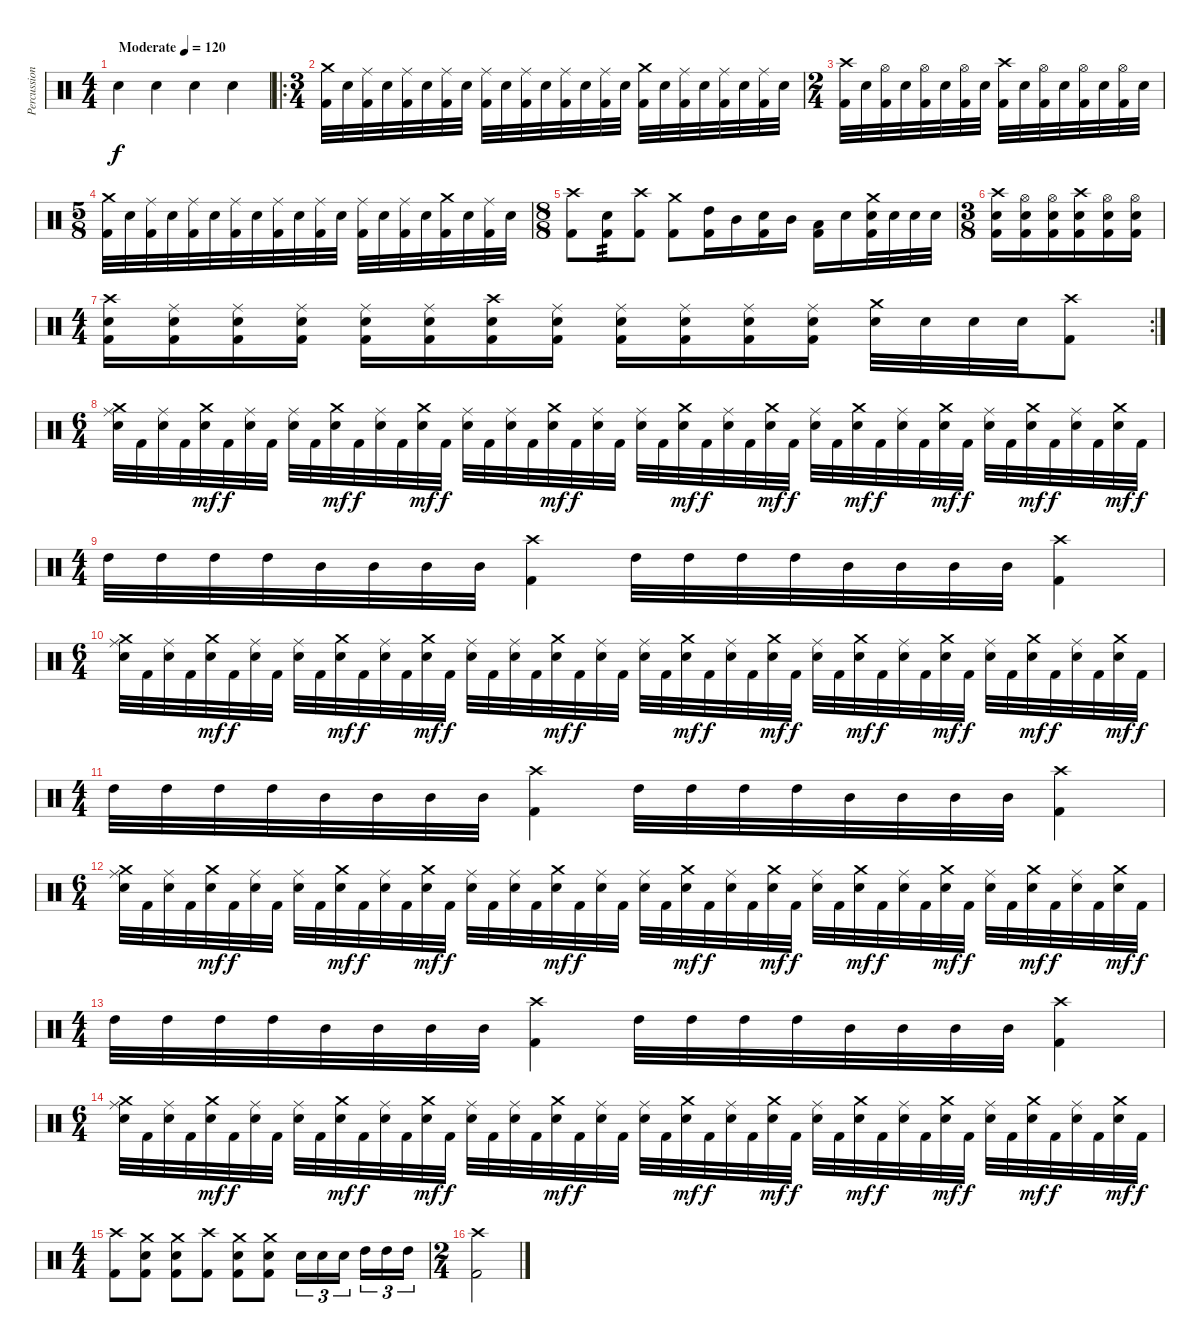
\track ("Percussion" "Percussion") {instrument percussion}
\staff {score}
\articulation defaults
\ts (4 4)
\tempo (120 "Moderate")
\clef neutral
\ks c "Electric Snare (hit)".4{dy f} "Electric Snare (hit)".4 "Electric Snare (hit)".4 "Electric Snare (hit)".4
|
\ro
\ts (3 4)
("Kick (hit) 2" "Crash medium (hit)").32 "Electric Snare (hit)".32 ("Kick (hit) 2" "Ride (middle)").32 "Electric Snare (hit)".32 ("Kick (hit) 2" "Ride (middle)").32 "Electric Snare (hit)".32 ("Kick (hit) 2" "Ride (middle)").32 "Electric Snare (hit)".32 ("Kick (hit) 2" "Ride (middle)").32 "Electric Snare (hit)".32 ("Kick (hit) 2" "Ride (middle)").32 "Electric Snare (hit)".32 ("Kick (hit) 2" "Ride (middle)").32 "Electric Snare (hit)".32 ("Kick (hit) 2" "Ride (middle)").32 "Electric Snare (hit)".32 ("Kick (hit) 2" "Crash medium (hit)").32 "Electric Snare (hit)".32 ("Kick (hit) 2" "Ride (middle)").32 "Electric Snare (hit)".32 ("Kick (hit) 2" "Ride (middle)").32 "Electric Snare (hit)".32 ("Kick (hit) 2" "Ride (middle)").32 "Electric Snare (hit)".32 |
\ts (2 4)
("Kick (hit) 2" "Crash high (hit)").32 "Electric Snare (hit)".32 ("Kick (hit) 2" "Hi-Hat (open)").32 "Electric Snare (hit)".32 ("Kick (hit) 2" "Hi-Hat (open)").32 "Electric Snare (hit)".32 ("Kick (hit) 2" "Hi-Hat (open)").32 "Electric Snare (hit)".32 ("Kick (hit) 2" "Crash high (hit)").32 "Electric Snare (hit)".32 ("Kick (hit) 2" "Hi-Hat (open)").32 "Electric Snare (hit)".32 ("Kick (hit) 2" "Hi-Hat (open)").32 "Electric Snare (hit)".32 ("Kick (hit) 2" "Hi-Hat (open)").32 "Electric Snare (hit)".32 |
\ts (5 8)
("Kick (hit) 2" "Crash medium (hit)").32 "Electric Snare (hit)".32 ("Kick (hit) 2" "Ride (middle)").32 "Electric Snare (hit)".32 ("Kick (hit) 2" "Ride (middle)").32 "Electric Snare (hit)".32 ("Kick (hit) 2" "Ride (middle)").32 "Electric Snare (hit)".32 ("Kick (hit) 2" "Ride (middle)").32 "Electric Snare (hit)".32 ("Kick (hit) 2" "Ride (middle)").32 "Electric Snare (hit)".32 ("Kick (hit) 2" "Ride (middle)").32 "Electric Snare (hit)".32 ("Kick (hit) 2" "Ride (middle)").32 "Electric Snare (hit)".32 ("Kick (hit) 2" "Crash medium (hit)").32 "Electric Snare (hit)".32 ("Kick (hit) 2" "Ride (middle)").32 "Electric Snare (hit)".32 |
\ts (8 8)
("Crash high (hit)" "Kick (hit) 2").8 ("Electric Snare (hit)" "Kick (hit) 2").8{tp 3} ("Crash high (hit)" "Kick (hit) 2").8 ("Crash medium (hit)" "Kick (hit) 2").8 ("Kick (hit) 2" "High Tom (hit)").16 "Mid Tom (hit)".16 ("Kick (hit) 2" "Electric Snare (hit)").16 "Mid Tom (hit)".16 ("Kick (hit) 2" "Low Tom (hit)").16 "Electric Snare (hit)".16 ("Kick (hit) 2" "Crash medium (hit)" "Electric Snare (hit)").32 "Electric Snare (hit)".32 "Electric Snare (hit)".32 "Electric Snare (hit)".32 |
\ts (3 8)
("Crash high (hit)" "Electric Snare (hit)" "Kick (hit) 2").16 ("Hi-Hat (open)" "Electric Snare (hit)" "Kick (hit) 2").16 ("Hi-Hat (open)" "Electric Snare (hit)" "Kick (hit) 2").16 ("Crash high (hit)" "Electric Snare (hit)" "Kick (hit) 2").16 ("Hi-Hat (open)" "Electric Snare (hit)" "Kick (hit) 2").16 ("Hi-Hat (open)" "Electric Snare (hit)" "Kick (hit) 2").16 |
\rc 2
\ts (4 4)
("Crash high (hit)" "Electric Snare (hit)" "Kick (hit) 2").16 ("Ride (middle)" "Electric Snare (hit)" "Kick (hit) 2").16 ("Ride (middle)" "Electric Snare (hit)" "Kick (hit) 2").16 ("Ride (middle)" "Electric Snare (hit)" "Kick (hit) 2").16 ("Ride (middle)" "Electric Snare (hit)" "Kick (hit) 2").16 ("Ride (middle)" "Electric Snare (hit)" "Kick (hit) 2").16 ("Crash high (hit)" "Electric Snare (hit)" "Kick (hit) 2").16 ("Ride (middle)" "Electric Snare (hit)" "Kick (hit) 2").16 ("Ride (middle)" "Electric Snare (hit)" "Kick (hit) 2").16 ("Ride (middle)" "Electric Snare (hit)" "Kick (hit) 2").16 ("Ride (middle)" "Electric Snare (hit)" "Kick (hit) 2").16 ("Ride (middle)" "Electric Snare (hit)" "Kick (hit) 2").16 ("Crash medium (hit)" "Electric Snare (hit)").32 "Electric Snare (hit)".32 "Electric Snare (hit)".32 "Electric Snare (hit)".32 ("Crash high (hit)" "Kick (hit) 2").8 |
\ts (6 4)
("Electric Snare (hit)" "Ride (middle)" "Crash medium (hit)").32 "Kick (hit) 2".32 ("Electric Snare (hit)" "Ride (middle)").32 "Kick (hit) 2".32 ("Electric Snare (hit)" "Crash medium (hit)").32{dy mf} "Kick (hit) 2".32{dy f} ("Electric Snare (hit)" "Ride (middle)").32 "Kick (hit) 2".32 ("Electric Snare (hit)" "Ride (middle)").32 "Kick (hit) 2".32 ("Electric Snare (hit)" "Crash medium (hit)").32{dy mf} "Kick (hit) 2".32{dy f} ("Electric Snare (hit)" "Ride (middle)").32 "Kick (hit) 2".32 ("Electric Snare (hit)" "Crash medium (hit)").32{dy mf} "Kick (hit) 2".32{dy f} ("Electric Snare (hit)" "Ride (middle)").32 "Kick (hit) 2".32 ("Electric Snare (hit)" "Ride (middle)").32 "Kick (hit) 2".32 ("Electric Snare (hit)" "Crash medium (hit)").32{dy mf} "Kick (hit) 2".32{dy f} ("Electric Snare (hit)" "Ride (middle)").32 "Kick (hit) 2".32 ("Electric Snare (hit)" "Ride (middle)").32 "Kick (hit) 2".32 ("Electric Snare (hit)" "Crash medium (hit)").32{dy mf} "Kick (hit) 2".32{dy f} ("Electric Snare (hit)" "Ride (middle)").32 "Kick (hit) 2".32 ("Electric Snare (hit)" "Crash medium (hit)").32{dy mf} "Kick (hit) 2".32{dy f} ("Electric Snare (hit)" "Ride (middle)").32 "Kick (hit) 2".32 ("Electric Snare (hit)" "Crash medium (hit)").32{dy mf} "Kick (hit) 2".32{dy f} ("Electric Snare (hit)" "Ride (middle)").32 "Kick (hit) 2".32 ("Electric Snare (hit)" "Crash medium (hit)").32{dy mf} "Kick (hit) 2".32{dy f} ("Electric Snare (hit)" "Ride (middle)").32 "Kick (hit) 2".32 ("Electric Snare (hit)" "Crash medium (hit)").32{dy mf} "Kick (hit) 2".32{dy f} ("Electric Snare (hit)" "Ride (middle)").32 "Kick (hit) 2".32 ("Electric Snare (hit)" "Crash medium (hit)").32{dy mf} "Kick (hit) 2".32{dy f} |
\ts (4 4)
"High Tom (hit)".32 "High Tom (hit)".32 "High Tom (hit)".32 "High Tom (hit)".32 "Mid Tom (hit)".32 "Mid Tom (hit)".32 "Mid Tom (hit)".32 "Mid Tom (hit)".32 ("Crash high (hit)" "Kick (hit) 2").4 "High Tom (hit)".32 "High Tom (hit)".32 "High Tom (hit)".32 "High Tom (hit)".32 "Mid Tom (hit)".32 "Mid Tom (hit)".32 "Mid Tom (hit)".32 "Mid Tom (hit)".32 ("Crash high (hit)" "Kick (hit) 2").4 |
\ts (6 4)
("Electric Snare (hit)" "Ride (middle)" "Crash medium (hit)").32 "Kick (hit) 2".32 ("Electric Snare (hit)" "Ride (middle)").32 "Kick (hit) 2".32 ("Electric Snare (hit)" "Crash medium (hit)").32{dy mf} "Kick (hit) 2".32{dy f} ("Electric Snare (hit)" "Ride (middle)").32 "Kick (hit) 2".32 ("Electric Snare (hit)" "Ride (middle)").32 "Kick (hit) 2".32 ("Electric Snare (hit)" "Crash medium (hit)").32{dy mf} "Kick (hit) 2".32{dy f} ("Electric Snare (hit)" "Ride (middle)").32 "Kick (hit) 2".32 ("Electric Snare (hit)" "Crash medium (hit)").32{dy mf} "Kick (hit) 2".32{dy f} ("Electric Snare (hit)" "Ride (middle)").32 "Kick (hit) 2".32 ("Electric Snare (hit)" "Ride (middle)").32 "Kick (hit) 2".32 ("Electric Snare (hit)" "Crash medium (hit)").32{dy mf} "Kick (hit) 2".32{dy f} ("Electric Snare (hit)" "Ride (middle)").32 "Kick (hit) 2".32 ("Electric Snare (hit)" "Ride (middle)").32 "Kick (hit) 2".32 ("Electric Snare (hit)" "Crash medium (hit)").32{dy mf} "Kick (hit) 2".32{dy f} ("Electric Snare (hit)" "Ride (middle)").32 "Kick (hit) 2".32 ("Electric Snare (hit)" "Crash medium (hit)").32{dy mf} "Kick (hit) 2".32{dy f} ("Electric Snare (hit)" "Ride (middle)").32 "Kick (hit) 2".32 ("Electric Snare (hit)" "Crash medium (hit)").32{dy mf} "Kick (hit) 2".32{dy f} ("Electric Snare (hit)" "Ride (middle)").32 "Kick (hit) 2".32 ("Electric Snare (hit)" "Crash medium (hit)").32{dy mf} "Kick (hit) 2".32{dy f} ("Electric Snare (hit)" "Ride (middle)").32 "Kick (hit) 2".32 ("Electric Snare (hit)" "Crash medium (hit)").32{dy mf} "Kick (hit) 2".32{dy f} ("Electric Snare (hit)" "Ride (middle)").32 "Kick (hit) 2".32 ("Electric Snare (hit)" "Crash medium (hit)").32{dy mf} "Kick (hit) 2".32{dy f} |
\ts (4 4)
"High Tom (hit)".32 "High Tom (hit)".32 "High Tom (hit)".32 "High Tom (hit)".32 "Mid Tom (hit)".32 "Mid Tom (hit)".32 "Mid Tom (hit)".32 "Mid Tom (hit)".32 ("Crash high (hit)" "Kick (hit) 2").4 "High Tom (hit)".32 "High Tom (hit)".32 "High Tom (hit)".32 "High Tom (hit)".32 "Mid Tom (hit)".32 "Mid Tom (hit)".32 "Mid Tom (hit)".32 "Mid Tom (hit)".32 ("Crash high (hit)" "Kick (hit) 2").4 |
\ts (6 4)
("Electric Snare (hit)" "Ride (middle)" "Crash medium (hit)").32 "Kick (hit) 2".32 ("Electric Snare (hit)" "Ride (middle)").32 "Kick (hit) 2".32 ("Electric Snare (hit)" "Crash medium (hit)").32{dy mf} "Kick (hit) 2".32{dy f} ("Electric Snare (hit)" "Ride (middle)").32 "Kick (hit) 2".32 ("Electric Snare (hit)" "Ride (middle)").32 "Kick (hit) 2".32 ("Electric Snare (hit)" "Crash medium (hit)").32{dy mf} "Kick (hit) 2".32{dy f} ("Electric Snare (hit)" "Ride (middle)").32 "Kick (hit) 2".32 ("Electric Snare (hit)" "Crash medium (hit)").32{dy mf} "Kick (hit) 2".32{dy f} ("Electric Snare (hit)" "Ride (middle)").32 "Kick (hit) 2".32 ("Electric Snare (hit)" "Ride (middle)").32 "Kick (hit) 2".32 ("Electric Snare (hit)" "Crash medium (hit)").32{dy mf} "Kick (hit) 2".32{dy f} ("Electric Snare (hit)" "Ride (middle)").32 "Kick (hit) 2".32 ("Electric Snare (hit)" "Ride (middle)").32 "Kick (hit) 2".32 ("Electric Snare (hit)" "Crash medium (hit)").32{dy mf} "Kick (hit) 2".32{dy f} ("Electric Snare (hit)" "Ride (middle)").32 "Kick (hit) 2".32 ("Electric Snare (hit)" "Crash medium (hit)").32{dy mf} "Kick (hit) 2".32{dy f} ("Electric Snare (hit)" "Ride (middle)").32 "Kick (hit) 2".32 ("Electric Snare (hit)" "Crash medium (hit)").32{dy mf} "Kick (hit) 2".32{dy f} ("Electric Snare (hit)" "Ride (middle)").32 "Kick (hit) 2".32 ("Electric Snare (hit)" "Crash medium (hit)").32{dy mf} "Kick (hit) 2".32{dy f} ("Electric Snare (hit)" "Ride (middle)").32 "Kick (hit) 2".32 ("Electric Snare (hit)" "Crash medium (hit)").32{dy mf} "Kick (hit) 2".32{dy f} ("Electric Snare (hit)" "Ride (middle)").32 "Kick (hit) 2".32 ("Electric Snare (hit)" "Crash medium (hit)").32{dy mf} "Kick (hit) 2".32{dy f} |
\ts (4 4)
"High Tom (hit)".32 "High Tom (hit)".32 "High Tom (hit)".32 "High Tom (hit)".32 "Mid Tom (hit)".32 "Mid Tom (hit)".32 "Mid Tom (hit)".32 "Mid Tom (hit)".32 ("Crash high (hit)" "Kick (hit) 2").4 "High Tom (hit)".32 "High Tom (hit)".32 "High Tom (hit)".32 "High Tom (hit)".32 "Mid Tom (hit)".32 "Mid Tom (hit)".32 "Mid Tom (hit)".32 "Mid Tom (hit)".32 ("Crash high (hit)" "Kick (hit) 2").4 |
\ts (6 4)
("Electric Snare (hit)" "Ride (middle)" "Crash medium (hit)").32 "Kick (hit) 2".32 ("Electric Snare (hit)" "Ride (middle)").32 "Kick (hit) 2".32 ("Electric Snare (hit)" "Crash medium (hit)").32{dy mf} "Kick (hit) 2".32{dy f} ("Electric Snare (hit)" "Ride (middle)").32 "Kick (hit) 2".32 ("Electric Snare (hit)" "Ride (middle)").32 "Kick (hit) 2".32 ("Electric Snare (hit)" "Crash medium (hit)").32{dy mf} "Kick (hit) 2".32{dy f} ("Electric Snare (hit)" "Ride (middle)").32 "Kick (hit) 2".32 ("Electric Snare (hit)" "Crash medium (hit)").32{dy mf} "Kick (hit) 2".32{dy f} ("Electric Snare (hit)" "Ride (middle)").32 "Kick (hit) 2".32 ("Electric Snare (hit)" "Ride (middle)").32 "Kick (hit) 2".32 ("Electric Snare (hit)" "Crash medium (hit)").32{dy mf} "Kick (hit) 2".32{dy f} ("Electric Snare (hit)" "Ride (middle)").32 "Kick (hit) 2".32 ("Electric Snare (hit)" "Ride (middle)").32 "Kick (hit) 2".32 ("Electric Snare (hit)" "Crash medium (hit)").32{dy mf} "Kick (hit) 2".32{dy f} ("Electric Snare (hit)" "Ride (middle)").32 "Kick (hit) 2".32 ("Electric Snare (hit)" "Crash medium (hit)").32{dy mf} "Kick (hit) 2".32{dy f} ("Electric Snare (hit)" "Ride (middle)").32 "Kick (hit) 2".32 ("Electric Snare (hit)" "Crash medium (hit)").32{dy mf} "Kick (hit) 2".32{dy f} ("Electric Snare (hit)" "Ride (middle)").32 "Kick (hit) 2".32 ("Electric Snare (hit)" "Crash medium (hit)").32{dy mf} "Kick (hit) 2".32{dy f} ("Electric Snare (hit)" "Ride (middle)").32 "Kick (hit) 2".32 ("Electric Snare (hit)" "Crash medium (hit)").32{dy mf} "Kick (hit) 2".32{dy f} ("Electric Snare (hit)" "Ride (middle)").32 "Kick (hit) 2".32 ("Electric Snare (hit)" "Crash medium (hit)").32{dy mf} "Kick (hit) 2".32{dy f} |
\ts (4 4)
("Crash high (hit)" "Kick (hit) 2").8 ("Kick (hit) 2" "Crash medium (hit)" "Electric Snare (hit)").8 ("Kick (hit) 2" "Crash medium (hit)" "Electric Snare (hit)").8 ("Crash high (hit)" "Kick (hit) 2").8 ("Kick (hit) 2" "Crash medium (hit)" "Electric Snare (hit)").8 ("Kick (hit) 2" "Crash medium (hit)" "Electric Snare (hit)").8 "Electric Snare (hit)".16{tu (3 2)} "Electric Snare (hit)".16{tu (3 2)} "Electric Snare (hit)".16{tu (3 2) beam splitsecondary} "High Tom (hit)".16{tu (3 2)} "High Tom (hit)".16{tu (3 2)} "High Tom (hit)".16{tu (3 2)} |
\ts (2 4)
("Crash high (hit)" "Kick (hit) 2").2
